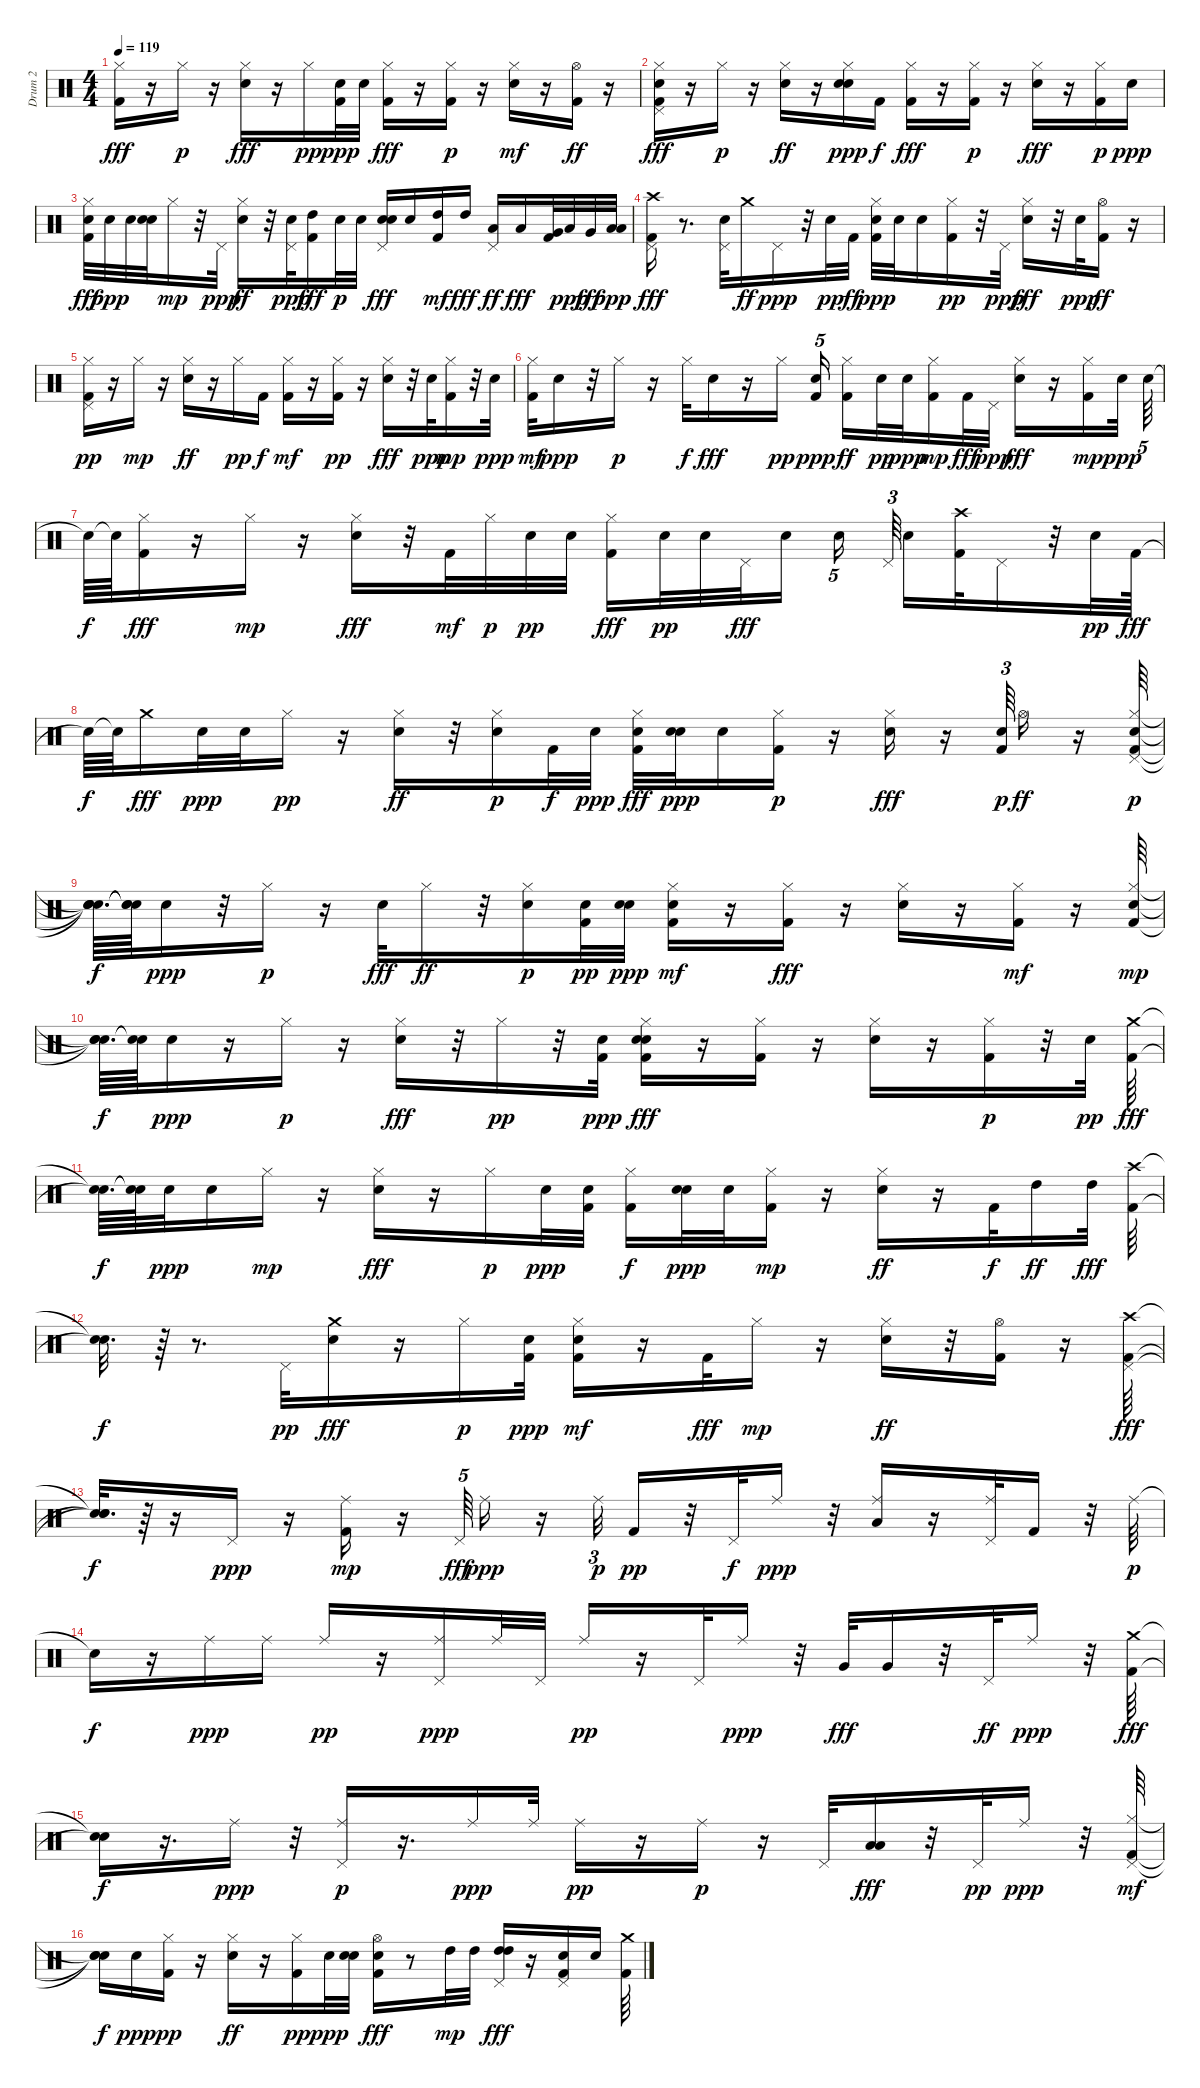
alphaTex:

\track ("Drum 2                          " "Drum 2    ") {instrument percussion}
\staff {score}
\articulation defaults
\ts (4 4)
\tempo 119
\clef neutral
\ks c
("Kick (hit) 2" "Hi-Hat (closed)").16{dy fff} r.16 "Hi-Hat (closed)".16{dy p} r.16 ("Snare (hit) 2" "Hi-Hat (closed)").16{dy fff} r.16 "Hi-Hat (closed)".16{dy pp} ("Snare (hit) 2" "Kick (hit) 2").32{dy ppp} "Snare (hit) 2".32 ("Kick (hit) 2" "Hi-Hat (closed)").16{dy fff} r.16 ("Kick (hit) 2" "Hi-Hat (closed)").16{dy p} r.16 ("Snare (hit) 2" "Hi-Hat (closed)").16{dy mf} r.16 ("Kick (hit) 2" "Hi-Hat (open)").16{dy ff} r.16 |
("Snare (hit) 2" "Pedal Hi-Hat (hit)" "Hi-Hat (closed)" "Kick (hit) 2").16{dy fff} r.16 "Hi-Hat (closed)".16{dy p} r.16 ("Snare (hit) 2" "Hi-Hat (closed)").16{dy ff} r.16 ("Snare (hit) 2" "Hi-Hat (closed)" "Snare (hit) 2").16{dy ppp} "Kick (hit) 2".16{dy f} ("Hi-Hat (closed)" "Kick (hit) 2").16{dy fff} r.16 ("Kick (hit) 2" "Hi-Hat (closed)").16{dy p} r.16 ("Snare (hit) 2" "Hi-Hat (closed)").16{dy fff} r.16 ("Kick (hit) 2" "Hi-Hat (closed)").16{dy p} "Snare (hit) 2".16{dy ppp} |
("Snare (hit) 2" "Kick (hit) 2" "Hi-Hat (closed)").32{dy fff} "Snare (hit) 2".32{dy ppp} "Snare (hit) 2".32 ("Snare (hit) 2" "Snare (hit) 2").32 "Hi-Hat (closed)".16{dy mp} r.32 "Pedal Hi-Hat (hit)".32{dy ppp} ("Snare (hit) 2" "Hi-Hat (closed)").16{dy ff} r.32 ("Snare (hit) 2" "Pedal Hi-Hat (hit)").32{dy ppp} ("High Tom (hit)" "Kick (hit) 2").16{dy fff} "Snare (hit) 2".32{dy p} "Snare (hit) 2".32 ("Snare (hit) 2" "Snare (hit) 2" "Pedal Hi-Hat (hit)").16{dy fff} "Snare (hit) 2".16 ("High Tom (hit)" "Kick (hit) 2").16{dy mf} "High Tom (hit)".16{dy fff} ("Pedal Hi-Hat (hit)" "Low Tom (hit)").16{dy ff} "Low Tom (hit)".16{dy fff} ("Very Low Tom (hit)" "Kick (hit) 2").32 "Low Floor Tom (hit)".32{dy ppp} "Very Low Tom (hit)".32{dy fff} ("Low Floor Tom (hit)" "Low Floor Tom (hit)").32{dy ppp} |
("Crash high (hit)" "Pedal Hi-Hat (hit)" "Kick (hit) 2").16{dy fff} r.8{d} ("Snare (hit) 2" "Pedal Hi-Hat (hit)").32 "Crash medium (hit)".16{dy ff} "Pedal Hi-Hat (hit)".16{dy ppp} r.32 "Snare (hit) 2".32{dy pp} "Kick (hit) 2".32{dy ff} ("Hi-Hat (closed)" "Kick (hit) 2" "Snare (hit) 2").32{dy ppp} "Snare (hit) 2".32 "Snare (hit) 2".16 ("Kick (hit) 2" "Hi-Hat (closed)").16{dy pp} r.32 "Pedal Hi-Hat (hit)".32{dy ppp} ("Snare (hit) 2" "Hi-Hat (closed)").16{dy fff} r.32 "Snare (hit) 2".32{dy ppp} ("Kick (hit) 2" "Hi-Hat (open)").16{dy ff} r.16 |
("Pedal Hi-Hat (hit)" "Kick (hit) 2" "Hi-Hat (closed)").16{dy pp} r.16 "Hi-Hat (closed)".16{dy mp} r.16 ("Snare (hit) 2" "Hi-Hat (closed)").16{dy ff} r.16 "Hi-Hat (closed)".16{dy pp} "Kick (hit) 2".16{dy f} ("Kick (hit) 2" "Hi-Hat (closed)").16{dy mf} r.16 ("Kick (hit) 2" "Hi-Hat (closed)").16{dy pp} r.16 ("Snare (hit) 2" "Hi-Hat (closed)").16{dy fff} r.32 "Snare (hit) 2".32{dy ppp} ("Kick (hit) 2" "Hi-Hat (closed)").16{dy mp} r.32 "Snare (hit) 2".32{dy ppp} |
("Kick (hit) 2" "Hi-Hat (closed)").32{dy mf} "Snare (hit) 2".16{dy ppp} r.32 "Hi-Hat (closed)".16{dy p} r.16 "Hi-Hat (closed)".32{dy f} "Snare (hit) 2".16{dy fff} r.16 "Hi-Hat (closed)".16{dy pp} ("Kick (hit) 2" "Snare (hit) 2").16{tu (5 4) dy ppp} ("Hi-Hat (closed)" "Kick (hit) 2").16{dy ff} "Snare (hit) 2".32{dy pp} "Snare (hit) 2".32{dy ppp} ("Kick (hit) 2" "Hi-Hat (closed)").16{dy mp} "Kick (hit) 2".32{dy fff} "Pedal Hi-Hat (hit)".32{dy ppp} ("Hi-Hat (closed)" "Snare (hit) 2").16{dy fff} r.16 ("Kick (hit) 2" "Hi-Hat (closed)").16{dy mp} "Snare (hit) 2".32{dy ppp} "Snare (hit) 2".64{tu (5 4)} |
"Snare (hit)"{t}.64{dy f} "Snare (hit)"{t}.64 ("Kick (hit) 2" "Hi-Hat (closed)").16{dy fff} r.16 "Hi-Hat (closed)".16{dy mp} r.16 ("Snare (hit) 2" "Hi-Hat (closed)").16{dy fff} r.32 "Kick (hit) 2".32{dy mf} "Hi-Hat (closed)".32{dy p} "Snare (hit) 2".32{dy pp} "Snare (hit) 2".32 ("Hi-Hat (closed)" "Kick (hit) 2").16{dy fff} "Snare (hit) 2".32{dy pp} "Snare (hit) 2".32 "Pedal Hi-Hat (hit)".32{dy fff} "Snare (hit) 2".16{beam splitsecondary} "Snare (hit) 2".16{tu (5 4)} "Pedal Hi-Hat (hit)".64{tu (3 2) beam splitsecondary} "Snare (hit) 2".16 ("Crash high (hit)" "Kick (hit) 2").32 "Pedal Hi-Hat (hit)".16 r.32 "Snare (hit) 2".32{dy pp} "Kick (hit) 2".64{dy fff} |
"Snare (hit)"{t}.64{dy f} "Snare (hit)"{t}.64 "Crash medium (hit)".16{dy fff} "Snare (hit) 2".32{dy ppp} "Snare (hit) 2".32 "Hi-Hat (closed)".16{dy pp} r.16 ("Snare (hit) 2" "Hi-Hat (closed)").16{dy ff} r.32 ("Snare (hit) 2" "Hi-Hat (closed)").16{dy p} "Kick (hit) 2".32{dy f} "Snare (hit) 2".32{dy ppp} ("Snare (hit) 2" "Kick (hit) 2" "Hi-Hat (closed)").32{dy fff} ("Snare (hit) 2" "Snare (hit) 2").32{dy ppp} "Snare (hit) 2".16 ("Kick (hit) 2" "Hi-Hat (closed)").16{dy p} r.16 ("Snare (hit) 2" "Hi-Hat (closed)").16{dy fff} r.16 ("Snare (hit) 2" "Kick (hit) 2").64{tu (3 2) dy p} "Hi-Hat (open)".16{dy ff} r.16 ("Snare (hit) 2" "Pedal Hi-Hat (hit)" "Kick (hit) 2" "Hi-Hat (closed)").64{dy p} |
("Snare (hit)"{t} "Snare (hit)"{t} "Snare (hit)"{t} "Snare (hit)"{t}).64{d dy f} ("Snare (hit)"{t} "Snare (hit)"{t} "Snare (hit)"{t}).64 "Snare (hit) 2".16{dy ppp} r.32 "Hi-Hat (closed)".16{dy p} r.16 "Snare (hit) 2".32{dy fff} "Hi-Hat (closed)".16{dy ff} r.32 ("Snare (hit) 2" "Hi-Hat (closed)").16{dy p} ("Snare (hit) 2" "Kick (hit) 2").32{dy pp} ("Snare (hit) 2" "Snare (hit) 2").32{dy ppp} ("Snare (hit) 2" "Kick (hit) 2" "Hi-Hat (closed)").16{dy mf} r.16 ("Hi-Hat (closed)" "Kick (hit) 2").16{dy fff} r.16 ("Snare (hit) 2" "Hi-Hat (closed)").16 r.16 ("Kick (hit) 2" "Hi-Hat (closed)").16{dy mf} r.16 ("Snare (hit) 2" "Kick (hit) 2" "Hi-Hat (closed)").64{dy mp} |
("Snare (hit)"{t} "Snare (hit)"{t} "Snare (hit)"{t}).64{d dy f} ("Snare (hit)"{t} "Snare (hit)"{t}).64 "Snare (hit) 2".16{dy ppp} r.16 "Hi-Hat (closed)".16{dy p} r.16 ("Hi-Hat (closed)" "Snare (hit) 2").16{dy fff} r.32 "Hi-Hat (closed)".16{dy pp} r.32 ("Snare (hit) 2" "Kick (hit) 2").32{dy ppp} ("Snare (hit) 2" "Snare (hit) 2" "Hi-Hat (closed)" "Kick (hit) 2").16{dy fff} r.16 ("Hi-Hat (closed)" "Kick (hit) 2").16 r.16 ("Snare (hit) 2" "Hi-Hat (closed)").16 r.16 ("Kick (hit) 2" "Hi-Hat (closed)").16{dy p} r.32 "Snare (hit) 2".32{dy pp} ("Crash medium (hit)" "Kick (hit) 2").64{dy fff} |
("Snare (hit)"{t} "Snare (hit)"{t}).64{d dy f} ("Snare (hit)"{t} "Snare (hit)"{t}).64 "Snare (hit) 2".32{dy ppp} "Snare (hit) 2".16 "Hi-Hat (closed)".16{dy mp} r.16 ("Snare (hit) 2" "Hi-Hat (closed)").16{dy fff} r.16 "Hi-Hat (closed)".16{dy p} "Snare (hit) 2".32{dy ppp} ("Kick (hit) 2" "Snare (hit) 2").32 ("Hi-Hat (closed)" "Kick (hit) 2").16{dy f} ("Snare (hit) 2" "Snare (hit) 2").32{dy ppp} "Snare (hit) 2".32 ("Kick (hit) 2" "Hi-Hat (closed)").16{dy mp} r.16 ("Snare (hit) 2" "Hi-Hat (closed)").16{dy ff} r.16 "Kick (hit) 2".32{dy f} "High Tom (hit)".16{dy ff} "High Tom (hit)".32{dy fff} ("Crash high (hit)" "Kick (hit) 2").64 |
("Snare (hit)"{t} "Snare (hit)"{t}).32{d dy f} r.64 r.8{d} "Pedal Hi-Hat (hit)".32{dy pp} ("Snare (hit) 2" "Crash medium (hit)").16{dy fff} r.16 "Hi-Hat (closed)".16{dy p} ("Snare (hit) 2" "Kick (hit) 2").32{dy ppp} ("Snare (hit) 2" "Kick (hit) 2" "Hi-Hat (closed)").16{dy mf} r.16 "Kick (hit) 2".32{dy fff} "Hi-Hat (closed)".16{dy mp} r.16 ("Snare (hit) 2" "Hi-Hat (closed)").16{dy ff} r.32 ("Kick (hit) 2" "Hi-Hat (open)").16 r.16 ("Pedal Hi-Hat (hit)" "Kick (hit) 2" "Crash high (hit)").64{dy fff} |
("Snare (hit)"{t} "Snare (hit)"{t} "Snare (hit)"{t}).32{d dy f} r.64 r.16 "Pedal Hi-Hat (hit)".16{dy ppp} r.16 ("Kick (hit) 2" "Ride (middle)").16{dy mp} r.16 "Pedal Hi-Hat (hit)".64{tu (5 4) dy fff} "Ride (middle)".16{dy ppp} r.16 "Ride (middle)".32{tu (3 2) dy p} "Kick (hit) 2".16{dy pp} r.32 "Pedal Hi-Hat (hit)".32{dy f} "Ride (middle)".16{dy ppp} r.32 ("Low Floor Tom (hit)" "Ride (middle)").16 r.16 ("Pedal Hi-Hat (hit)" "Ride (middle)").32 "Kick (hit) 2".16 r.32 "Ride (middle)".64{dy p} |
"Snare (hit)"{t}.16{dy f} r.16 "Ride (middle)".16{dy ppp} "Ride (middle)".16 "Ride (middle)".16{dy pp} r.16 ("Pedal Hi-Hat (hit)" "Ride (middle)").16{dy ppp} "Ride (middle)".32 "Pedal Hi-Hat (hit)".32 "Ride (middle)".16{dy pp} r.16 "Pedal Hi-Hat (hit)".32 "Ride (middle)".16{dy ppp} r.32 "Very Low Tom (hit)".32{dy fff} "Very Low Tom (hit)".16 r.32 "Pedal Hi-Hat (hit)".32{dy ff} "Ride (middle)".16{dy ppp} r.32 ("Kick (hit) 2" "Crash medium (hit)").64{dy fff} |
("Snare (hit)"{t} "Snare (hit)"{t}).16{dy f} r.16{d} "Ride (middle)".16{dy ppp} r.32 ("Pedal Hi-Hat (hit)" "Ride (middle)").16{dy p} r.16{d} "Ride (middle)".16{dy ppp} "Ride (middle)".32 "Ride (middle)".16{dy pp} r.16 "Ride (middle)".16{dy p} r.16 "Pedal Hi-Hat (hit)".32 ("Low Tom (hit)" "Low Floor Tom (hit)").16{dy fff} r.32 "Pedal Hi-Hat (hit)".32{dy pp} "Ride (middle)".16{dy ppp} r.32 ("Pedal Hi-Hat (hit)" "Hi-Hat (closed)" "Kick (hit) 2").64{dy mf} |
("Snare (hit)"{t} "Snare (hit)"{t} "Snare (hit)"{t}).16{dy f} "Snare (hit) 2".16{dy ppp} ("Kick (hit) 2" "Hi-Hat (closed)").16{dy pp} r.16 ("Snare (hit) 2" "Hi-Hat (closed)").16{dy ff} r.16 ("Kick (hit) 2" "Hi-Hat (closed)").16{dy pp} "Snare (hit) 2".32{dy ppp} ("Snare (hit) 2" "Snare (hit) 2").32 ("Snare (hit) 2" "Kick (hit) 2" "Hi-Hat (open)").16{dy fff} r.8 "High Tom (hit)".32{dy mp} "High Tom (hit)".32 ("High Tom (hit)" "Pedal Hi-Hat (hit)" "High Tom (hit)").16{dy fff} r.16 ("Pedal Hi-Hat (hit)" "Kick (hit) 2" "Snare (hit) 2").16 "Snare (hit) 2".16 ("Crash medium (hit)" "Kick (hit) 2").64
